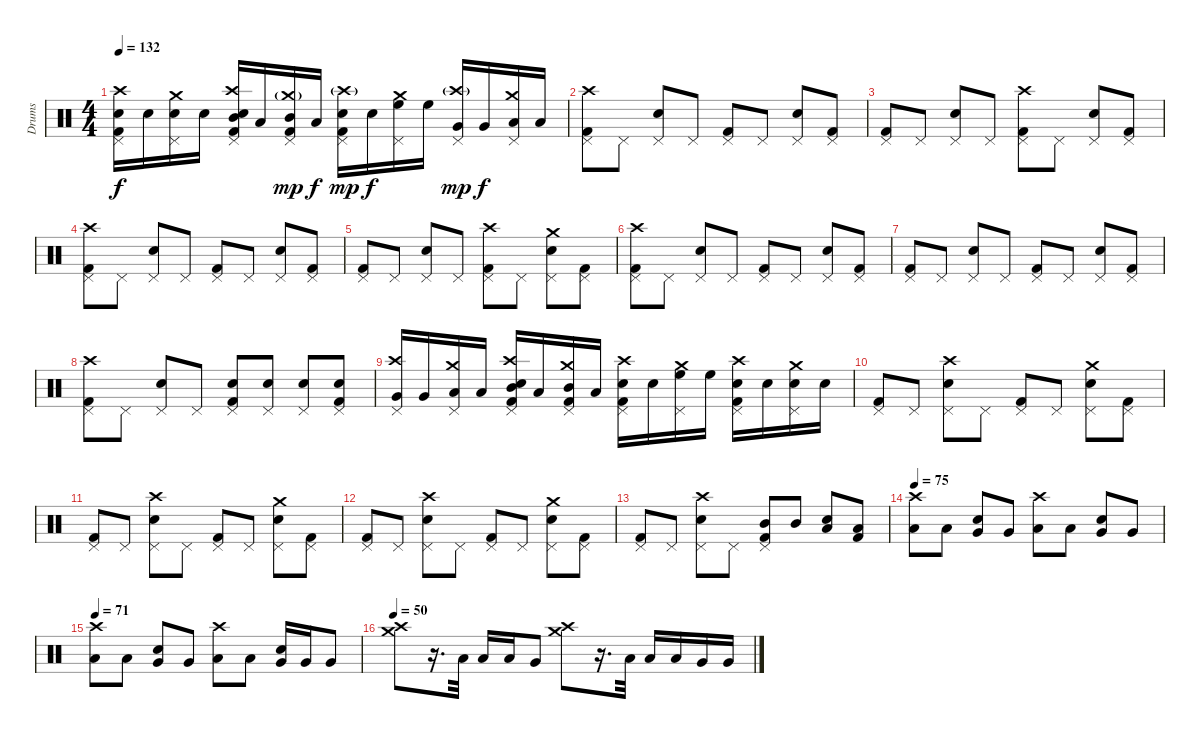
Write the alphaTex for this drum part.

\track ("Drums" "Drums") {instrument percussion}
\staff {score}
\articulation defaults
\ts (4 4)
\tempo 132
\clef neutral
\ks c
("Electric Snare (hit)" "Pedal Hi-Hat (hit)" "Kick (hit) 2" "Crash high (hit)").16{dy f} "Electric Snare (hit)".16 ("Electric Snare (hit)" "Pedal Hi-Hat (hit)" "Crash medium (hit)").16 "Electric Snare (hit)".16 ("Electric Snare (hit)" "Mid Tom (hit)" "Pedal Hi-Hat (hit)" "Kick (hit) 2" "Crash high (hit)").16 "Low Floor Tom (hit)".16 ("Mid Tom (hit)" "Pedal Hi-Hat (hit)" "Kick (hit) 2" "Crash medium (hit)"{g}).16{dy mp} "Low Floor Tom (hit)".16{dy f} ("Electric Snare (hit)" "Pedal Hi-Hat (hit)" "Kick (hit) 2" "Crash high (hit)"{g}).16{dy mp} "Electric Snare (hit)".16{dy f} ("High Floor Tom (hit)" "Pedal Hi-Hat (hit)" "Crash medium (hit)").16 "High Floor Tom (hit)".16 ("Very Low Tom (hit)" "Pedal Hi-Hat (hit)" "Crash high (hit)"{g}).16{dy mp} "Very Low Tom (hit)".16{dy f} ("Low Tom (hit)" "Pedal Hi-Hat (hit)" "Crash medium (hit)").16 "Low Tom (hit)".16 |
("Pedal Hi-Hat (hit)" "Kick (hit) 2" "Crash high (hit)").8 "Pedal Hi-Hat (hit)".8 ("Electric Snare (hit)" "Pedal Hi-Hat (hit)").8 "Pedal Hi-Hat (hit)".8 ("Pedal Hi-Hat (hit)" "Kick (hit) 2").8 "Pedal Hi-Hat (hit)".8 ("Electric Snare (hit)" "Pedal Hi-Hat (hit)").8 ("Pedal Hi-Hat (hit)" "Kick (hit) 2").8 |
("Pedal Hi-Hat (hit)" "Kick (hit) 2").8 "Pedal Hi-Hat (hit)".8 ("Electric Snare (hit)" "Pedal Hi-Hat (hit)").8 "Pedal Hi-Hat (hit)".8 ("Pedal Hi-Hat (hit)" "Kick (hit) 2" "Crash high (hit)").8 "Pedal Hi-Hat (hit)".8 ("Electric Snare (hit)" "Pedal Hi-Hat (hit)").8 ("Pedal Hi-Hat (hit)" "Kick (hit) 2").8 |
("Pedal Hi-Hat (hit)" "Kick (hit) 2" "Crash high (hit)").8 "Pedal Hi-Hat (hit)".8 ("Electric Snare (hit)" "Pedal Hi-Hat (hit)").8 "Pedal Hi-Hat (hit)".8 ("Pedal Hi-Hat (hit)" "Kick (hit) 2").8 "Pedal Hi-Hat (hit)".8 ("Electric Snare (hit)" "Pedal Hi-Hat (hit)").8 ("Pedal Hi-Hat (hit)" "Kick (hit) 2").8 |
("Pedal Hi-Hat (hit)" "Kick (hit) 2").8 "Pedal Hi-Hat (hit)".8 ("Electric Snare (hit)" "Pedal Hi-Hat (hit)").8 "Pedal Hi-Hat (hit)".8 ("Pedal Hi-Hat (hit)" "Kick (hit) 2" "Crash high (hit)").8 "Pedal Hi-Hat (hit)".8 ("Electric Snare (hit)" "Pedal Hi-Hat (hit)" "Crash medium (hit)").8 ("Pedal Hi-Hat (hit)" "Kick (hit) 2").8 |
("Pedal Hi-Hat (hit)" "Kick (hit) 2" "Crash high (hit)").8 "Pedal Hi-Hat (hit)".8 ("Electric Snare (hit)" "Pedal Hi-Hat (hit)").8 "Pedal Hi-Hat (hit)".8 ("Pedal Hi-Hat (hit)" "Kick (hit) 2").8 "Pedal Hi-Hat (hit)".8 ("Electric Snare (hit)" "Pedal Hi-Hat (hit)").8 ("Pedal Hi-Hat (hit)" "Kick (hit) 2").8 |
("Pedal Hi-Hat (hit)" "Kick (hit) 2").8 "Pedal Hi-Hat (hit)".8 ("Electric Snare (hit)" "Pedal Hi-Hat (hit)").8 "Pedal Hi-Hat (hit)".8 ("Pedal Hi-Hat (hit)" "Kick (hit) 2").8 "Pedal Hi-Hat (hit)".8 ("Electric Snare (hit)" "Pedal Hi-Hat (hit)").8 ("Pedal Hi-Hat (hit)" "Kick (hit) 2").8 |
("Pedal Hi-Hat (hit)" "Kick (hit) 2" "Crash high (hit)").8 "Pedal Hi-Hat (hit)".8 ("Electric Snare (hit)" "Pedal Hi-Hat (hit)").8 "Pedal Hi-Hat (hit)".8 ("Electric Snare (hit)" "Pedal Hi-Hat (hit)" "Kick (hit) 2").8 ("Electric Snare (hit)" "Pedal Hi-Hat (hit)").8 ("Electric Snare (hit)" "Pedal Hi-Hat (hit)").8 ("Electric Snare (hit)" "Pedal Hi-Hat (hit)" "Kick (hit) 2").8 |
("Very Low Tom (hit)" "Pedal Hi-Hat (hit)" "Crash high (hit)").16 "Very Low Tom (hit)".16 ("Low Tom (hit)" "Pedal Hi-Hat (hit)" "Crash medium (hit)").16 "Low Tom (hit)".16 ("Electric Snare (hit)" "Mid Tom (hit)" "Pedal Hi-Hat (hit)" "Kick (hit) 2" "Crash high (hit)").16 "Low Floor Tom (hit)".16 ("Mid Tom (hit)" "Pedal Hi-Hat (hit)" "Kick (hit) 2" "Crash medium (hit)").16 "Low Floor Tom (hit)".16 ("Electric Snare (hit)" "Pedal Hi-Hat (hit)" "Kick (hit) 2" "Crash high (hit)").16 "Electric Snare (hit)".16 ("High Floor Tom (hit)" "Pedal Hi-Hat (hit)" "Crash medium (hit)").16 "High Floor Tom (hit)".16 ("Electric Snare (hit)" "Pedal Hi-Hat (hit)" "Kick (hit) 2" "Crash high (hit)").16 "Electric Snare (hit)".16 ("Electric Snare (hit)" "Pedal Hi-Hat (hit)" "Crash medium (hit)").16 "Electric Snare (hit)".16 |
("Pedal Hi-Hat (hit)" "Kick (hit) 2").8 "Pedal Hi-Hat (hit)".8 ("Electric Snare (hit)" "Pedal Hi-Hat (hit)" "Crash high (hit)").8 "Pedal Hi-Hat (hit)".8 ("Pedal Hi-Hat (hit)" "Kick (hit) 2").8 "Pedal Hi-Hat (hit)".8 ("Electric Snare (hit)" "Pedal Hi-Hat (hit)" "Crash medium (hit)").8 ("Pedal Hi-Hat (hit)" "Kick (hit) 2").8 |
("Pedal Hi-Hat (hit)" "Kick (hit) 2").8 "Pedal Hi-Hat (hit)".8 ("Electric Snare (hit)" "Pedal Hi-Hat (hit)" "Crash high (hit)").8 "Pedal Hi-Hat (hit)".8 ("Pedal Hi-Hat (hit)" "Kick (hit) 2").8 "Pedal Hi-Hat (hit)".8 ("Electric Snare (hit)" "Pedal Hi-Hat (hit)" "Crash medium (hit)").8 ("Pedal Hi-Hat (hit)" "Kick (hit) 2").8 |
("Pedal Hi-Hat (hit)" "Kick (hit) 2").8 "Pedal Hi-Hat (hit)".8 ("Electric Snare (hit)" "Pedal Hi-Hat (hit)" "Crash high (hit)").8 "Pedal Hi-Hat (hit)".8 ("Pedal Hi-Hat (hit)" "Kick (hit) 2").8 "Pedal Hi-Hat (hit)".8 ("Electric Snare (hit)" "Pedal Hi-Hat (hit)" "Crash medium (hit)").8 ("Pedal Hi-Hat (hit)" "Kick (hit) 2").8 |
("Pedal Hi-Hat (hit)" "Kick (hit) 2").8 "Pedal Hi-Hat (hit)".8 ("Electric Snare (hit)" "Pedal Hi-Hat (hit)" "Crash high (hit)").8 "Pedal Hi-Hat (hit)".8 ("Pedal Hi-Hat (hit)" "Mid Tom (hit)" "Kick (hit) 2").8 "Mid Tom (hit)".8 ("Electric Snare (hit)" "Low Tom (hit)").8 ("Low Tom (hit)" "Kick (hit) 2").8 |
\tempo 75
("Low Tom (hit)" "Crash high (hit)").8 "Low Tom (hit)".8 ("Electric Snare (hit)" "Very Low Tom (hit)").8 "Very Low Tom (hit)".8 ("Low Tom (hit)" "Crash high (hit)").8 "Low Tom (hit)".8 ("Electric Snare (hit)" "Very Low Tom (hit)").8 "Very Low Tom (hit)".8 |
\tempo 71
("Low Tom (hit)" "Crash high (hit)").8 "Low Tom (hit)".8 ("Electric Snare (hit)" "Very Low Tom (hit)").8 "Very Low Tom (hit)".8 ("Low Tom (hit)" "Crash high (hit)").8 "Low Tom (hit)".8 ("Electric Snare (hit)" "Very Low Tom (hit)").16 "Very Low Tom (hit)".16 "Very Low Tom (hit)".8 |
\tempo 50
("Crash medium (hit)" "Crash high (hit)").8 r.16{d} "Low Tom (hit)".32 "Low Tom (hit)".16 "Low Tom (hit)".16 "Very Low Tom (hit)".8 ("Crash medium (hit)" "Crash high (hit)").8 r.16{d} "Low Tom (hit)".32 "Low Tom (hit)".16 "Low Tom (hit)".16 "Very Low Tom (hit)".16 "Very Low Tom (hit)".16
